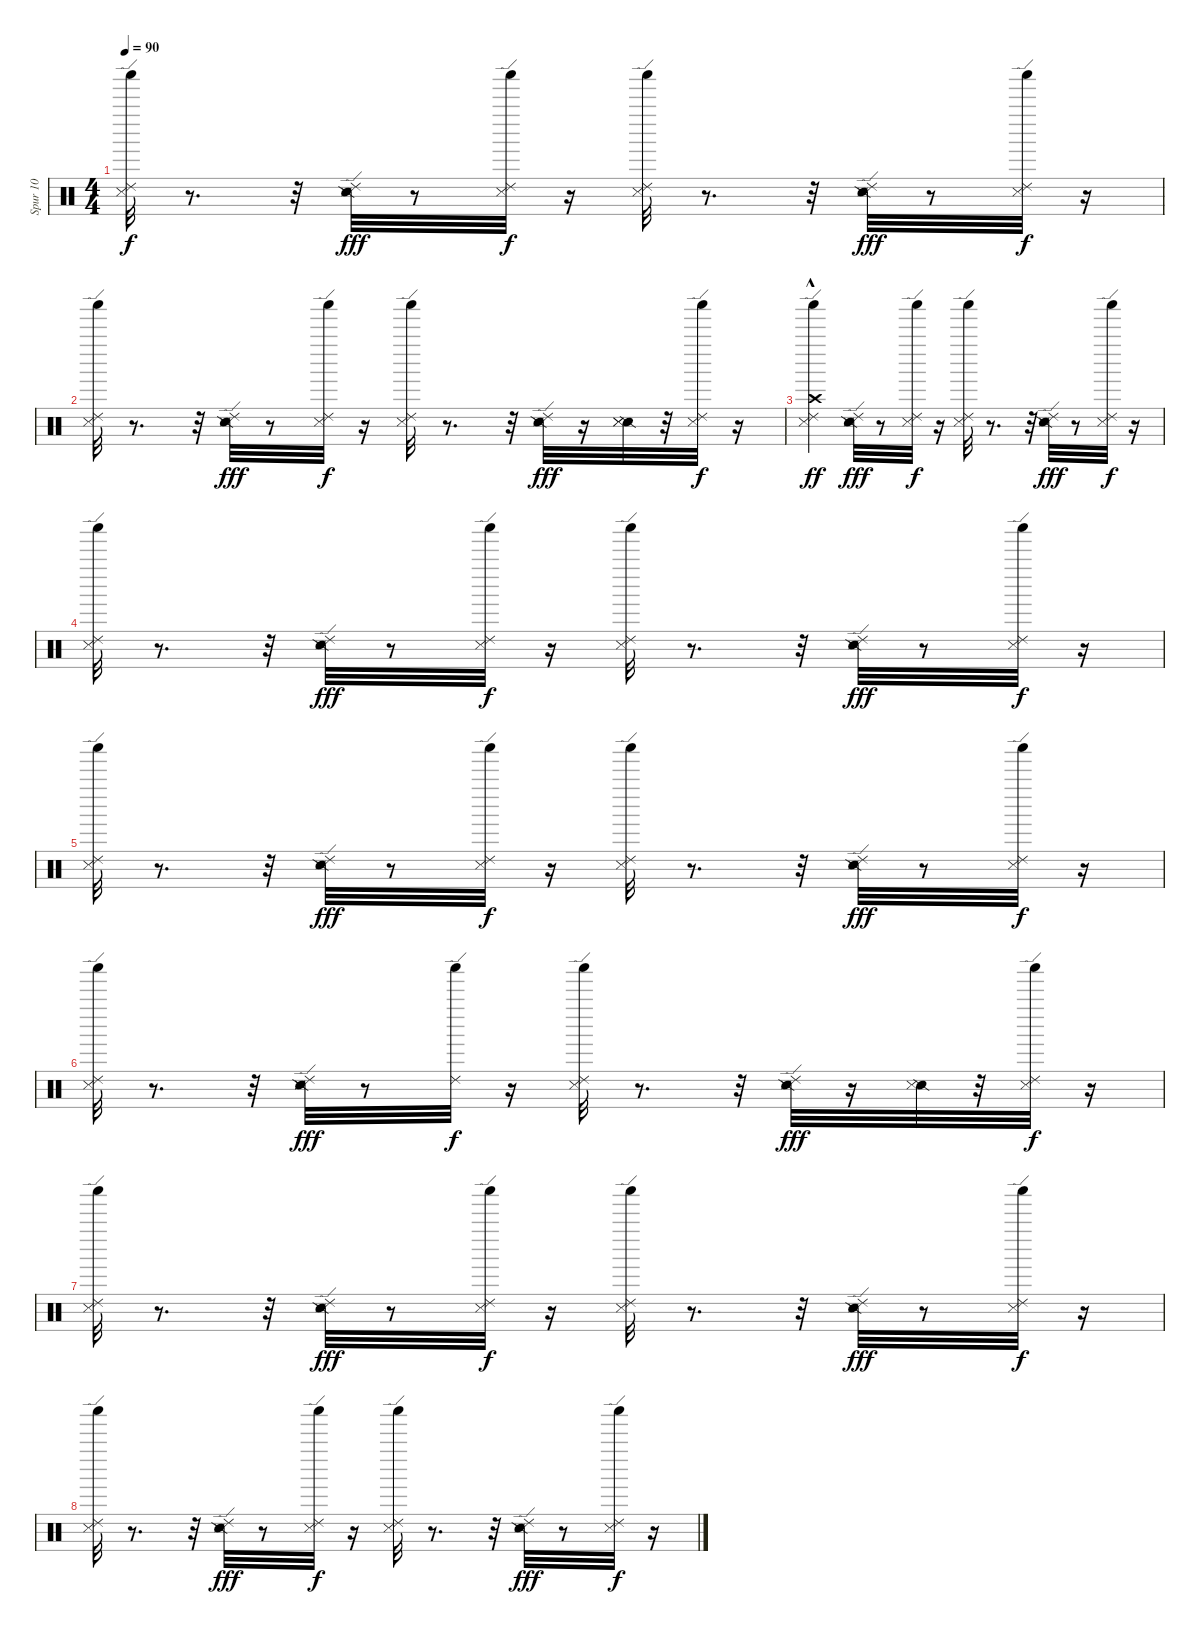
\track ("Spur 10" "Spur 10") {instrument percussion}
\staff {score}
\articulation defaults
\ts (4 4)
\tempo 90
\clef neutral
\ks c
("Shaker (hit)" "Ride (edge) 2" "Metronome (hit)").32{dy f} r.8{d} r.32 ("Ride (edge) 2" "Snare (side stick) 2" "Snare (side stick) 3").32{dy fff} r.8 ("Ride (edge) 2" "Shaker (hit)" "Metronome (hit)").32{dy f} r.16 ("Shaker (hit)" "Ride (edge) 2" "Metronome (hit)").32 r.8{d} r.32 ("Ride (edge) 2" "Snare (side stick) 2" "Snare (side stick) 3").32{dy fff} r.8 ("Shaker (hit)" "Ride (edge) 2" "Metronome (hit)").32{dy f} r.16 |
("Ride (edge) 2" "Shaker (hit)" "Metronome (hit)").32 r.8{d} r.32 ("Ride (edge) 2" "Snare (side stick) 2" "Snare (side stick) 3").32{dy fff} r.8 ("Shaker (hit)" "Ride (edge) 2" "Metronome (hit)").32{dy f} r.16 ("Ride (edge) 2" "Shaker (hit)" "Metronome (hit)").32 r.8{d} r.32 ("Ride (edge) 2" "Snare (side stick) 2" "Snare (side stick) 3").32{dy fff} r.16 ("Snare (side stick) 2" "Metronome (hit)" "Snare (side stick) 3").32 r.32 ("Shaker (hit)" "Ride (edge) 2" "Metronome (hit)").32{dy f} r.16 |
("Ride (edge) 2" "Shaker (hit)" "Metronome (hit)" "Crash high (hit)"{hac}).4{dy ff} ("Ride (edge) 2" "Snare (side stick) 2" "Snare (side stick) 3").32{dy fff} r.8 ("Ride (edge) 2" "Shaker (hit)" "Metronome (hit)").32{dy f} r.16 ("Ride (edge) 2" "Shaker (hit)" "Metronome (hit)").32 r.8{d} r.32 ("Ride (edge) 2" "Snare (side stick) 2" "Snare (side stick) 3").32{dy fff} r.8 ("Ride (edge) 2" "Shaker (hit)" "Metronome (hit)").32{dy f} r.16 |
("Ride (edge) 2" "Shaker (hit)" "Metronome (hit)").32 r.8{d} r.32 ("Ride (edge) 2" "Snare (side stick) 2" "Snare (side stick) 3").32{dy fff} r.8 ("Shaker (hit)" "Ride (edge) 2" "Metronome (hit)").32{dy f} r.16 ("Ride (edge) 2" "Shaker (hit)" "Metronome (hit)").32 r.8{d} r.32 ("Ride (edge) 2" "Snare (side stick) 2" "Snare (side stick) 3").32{dy fff} r.8 ("Ride (edge) 2" "Shaker (hit)" "Metronome (hit)").32{dy f} r.16 |
("Shaker (hit)" "Ride (edge) 2" "Metronome (hit)").32 r.8{d} r.32 ("Ride (edge) 2" "Snare (side stick) 2" "Snare (side stick) 3").32{dy fff} r.8 ("Ride (edge) 2" "Shaker (hit)" "Metronome (hit)").32{dy f} r.16 ("Ride (edge) 2" "Shaker (hit)" "Metronome (hit)").32 r.8{d} r.32 ("Ride (edge) 2" "Snare (side stick) 2" "Snare (side stick) 3").32{dy fff} r.8 ("Shaker (hit)" "Ride (edge) 2" "Metronome (hit)").32{dy f} r.16 |
("Ride (edge) 2" "Shaker (hit)" "Metronome (hit)").32 r.8{d} r.32 ("Ride (edge) 2" "Snare (side stick) 2" "Metronome (hit)" "Snare (side stick) 3").32{dy fff} r.8 ("Ride (edge) 2" "Shaker (hit)").32{dy f} r.16 ("Ride (edge) 2" "Shaker (hit)" "Metronome (hit)").32 r.8{d} r.32 ("Ride (edge) 2" "Snare (side stick) 2" "Snare (side stick) 3").32{dy fff} r.16 ("Snare (side stick) 2" "Snare (side stick) 3").32 r.32 ("Ride (edge) 2" "Shaker (hit)" "Metronome (hit)").32{dy f} r.16 |
("Ride (edge) 2" "Shaker (hit)" "Metronome (hit)").32 r.8{d} r.32 ("Ride (edge) 2" "Snare (side stick) 2" "Snare (side stick) 3").32{dy fff} r.8 ("Shaker (hit)" "Ride (edge) 2" "Metronome (hit)").32{dy f} r.16 ("Ride (edge) 2" "Shaker (hit)" "Metronome (hit)").32 r.8{d} r.32 ("Ride (edge) 2" "Snare (side stick) 2" "Snare (side stick) 3").32{dy fff} r.8 ("Ride (edge) 2" "Shaker (hit)" "Metronome (hit)").32{dy f} r.16 |
("Ride (edge) 2" "Shaker (hit)" "Metronome (hit)").32 r.8{d} r.32 ("Ride (edge) 2" "Snare (side stick) 2" "Snare (side stick) 3").32{dy fff} r.8 ("Ride (edge) 2" "Shaker (hit)" "Metronome (hit)").32{dy f} r.16 ("Ride (edge) 2" "Shaker (hit)" "Metronome (hit)").32 r.8{d} r.32 ("Ride (edge) 2" "Snare (side stick) 2" "Snare (side stick) 3").32{dy fff} r.8 ("Shaker (hit)" "Ride (edge) 2" "Metronome (hit)").32{dy f} r.16
